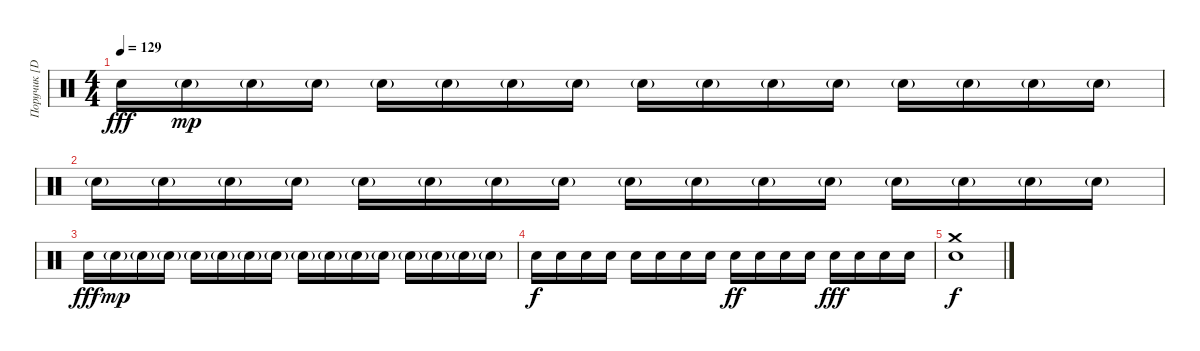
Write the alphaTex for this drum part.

\track ("Поручик [Drums]" "Поручик [D") {instrument percussion}
\staff {score}
\articulation defaults
\ts (4 4)
\tempo 129
\clef neutral
\ks c "Snare (hit) 2".16{dy fff} "Snare (hit) 2"{g}.16{dy mp} "Snare (hit) 2"{g}.16 "Snare (hit) 2"{g}.16 "Snare (hit) 2"{g}.16 "Snare (hit) 2"{g}.16 "Snare (hit) 2"{g}.16 "Snare (hit) 2"{g}.16 "Snare (hit) 2"{g}.16 "Snare (hit) 2"{g}.16 "Snare (hit) 2"{g}.16 "Snare (hit) 2"{g}.16 "Snare (hit) 2"{g}.16 "Snare (hit) 2"{g}.16 "Snare (hit) 2"{g}.16 "Snare (hit) 2"{g}.16
|
"Snare (hit) 2"{g}.16 "Snare (hit) 2"{g}.16 "Snare (hit) 2"{g}.16 "Snare (hit) 2"{g}.16 "Snare (hit) 2"{g}.16 "Snare (hit) 2"{g}.16 "Snare (hit) 2"{g}.16 "Snare (hit) 2"{g}.16 "Snare (hit) 2"{g}.16 "Snare (hit) 2"{g}.16 "Snare (hit) 2"{g}.16 "Snare (hit) 2"{g}.16 "Snare (hit) 2"{g}.16 "Snare (hit) 2"{g}.16 "Snare (hit) 2"{g}.16 "Snare (hit) 2"{g}.16 |
"Snare (hit) 2".16{dy fff} "Snare (hit) 2"{g}.16{dy mp} "Snare (hit) 2"{g}.16 "Snare (hit) 2"{g}.16 "Snare (hit) 2"{g}.16 "Snare (hit) 2"{g}.16 "Snare (hit) 2"{g}.16 "Snare (hit) 2"{g}.16 "Snare (hit) 2"{g}.16 "Snare (hit) 2"{g}.16 "Snare (hit) 2"{g}.16 "Snare (hit) 2"{g}.16 "Snare (hit) 2"{g}.16 "Snare (hit) 2"{g}.16 "Snare (hit) 2"{g}.16 "Snare (hit) 2"{g}.16 |
"Snare (hit) 2".16{dy f} "Snare (hit) 2".16 "Snare (hit) 2".16 "Snare (hit) 2".16 "Snare (hit) 2".16 "Snare (hit) 2".16 "Snare (hit) 2".16 "Snare (hit) 2".16 "Snare (hit) 2".16{dy ff} "Snare (hit) 2".16 "Snare (hit) 2".16 "Snare (hit) 2".16 "Snare (hit) 2".16{dy fff} "Snare (hit) 2".16 "Snare (hit) 2".16 "Snare (hit) 2".16 |
("Crash medium (hit)" "Snare (hit) 2").1{dy f}
